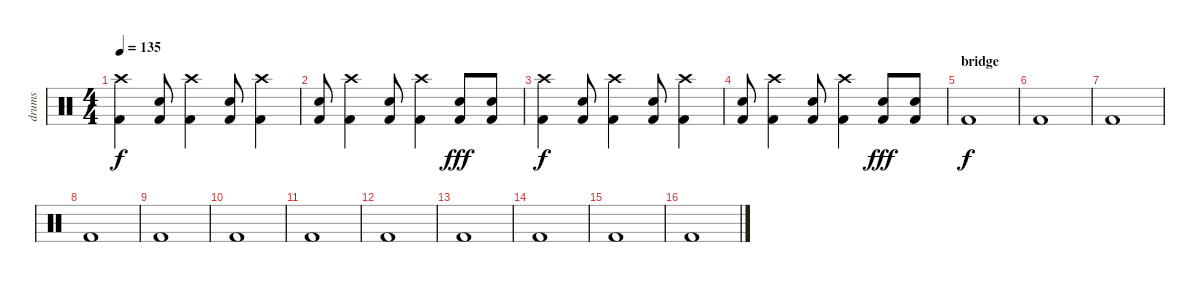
\track ("drums" "drums") {instrument percussion}
\staff {score}
\articulation defaults
\ts (4 4)
\tempo 135
\clef neutral
\ks c
("Crash high (hit)" "Kick (hit) 2").4{dy f} ("Electric Snare (hit)" "Kick (hit) 2").8 ("Crash high (hit)" "Kick (hit) 2").4 ("Electric Snare (hit)" "Kick (hit) 2").8 ("Crash high (hit)" "Kick (hit) 2").4 |
("Electric Snare (hit)" "Kick (hit) 2").8 ("Crash high (hit)" "Kick (hit) 2").4 ("Electric Snare (hit)" "Kick (hit) 2").8 ("Crash high (hit)" "Kick (hit) 2").4 ("Electric Snare (hit)" "Kick (hit) 2").8{dy fff} ("Electric Snare (hit)" "Kick (hit) 2").8 |
("Crash high (hit)" "Kick (hit) 2").4{dy f} ("Electric Snare (hit)" "Kick (hit) 2").8 ("Crash high (hit)" "Kick (hit) 2").4 ("Electric Snare (hit)" "Kick (hit) 2").8 ("Crash high (hit)" "Kick (hit) 2").4 |
("Electric Snare (hit)" "Kick (hit) 2").8 ("Crash high (hit)" "Kick (hit) 2").4 ("Electric Snare (hit)" "Kick (hit) 2").8 ("Crash high (hit)" "Kick (hit) 2").4 ("Electric Snare (hit)" "Kick (hit) 2").8{dy fff} ("Electric Snare (hit)" "Kick (hit) 2").8 |
\section ("" "bridge")
"Kick (hit) 2".1{dy f} |
"Kick (hit) 2".1 |
"Kick (hit) 2".1 |
"Kick (hit) 2".1 |
"Kick (hit) 2".1 |
"Kick (hit) 2".1 |
"Kick (hit) 2".1 |
"Kick (hit) 2".1 |
"Kick (hit) 2".1 |
"Kick (hit) 2".1 |
"Kick (hit) 2".1 |
"Kick (hit) 2".1
